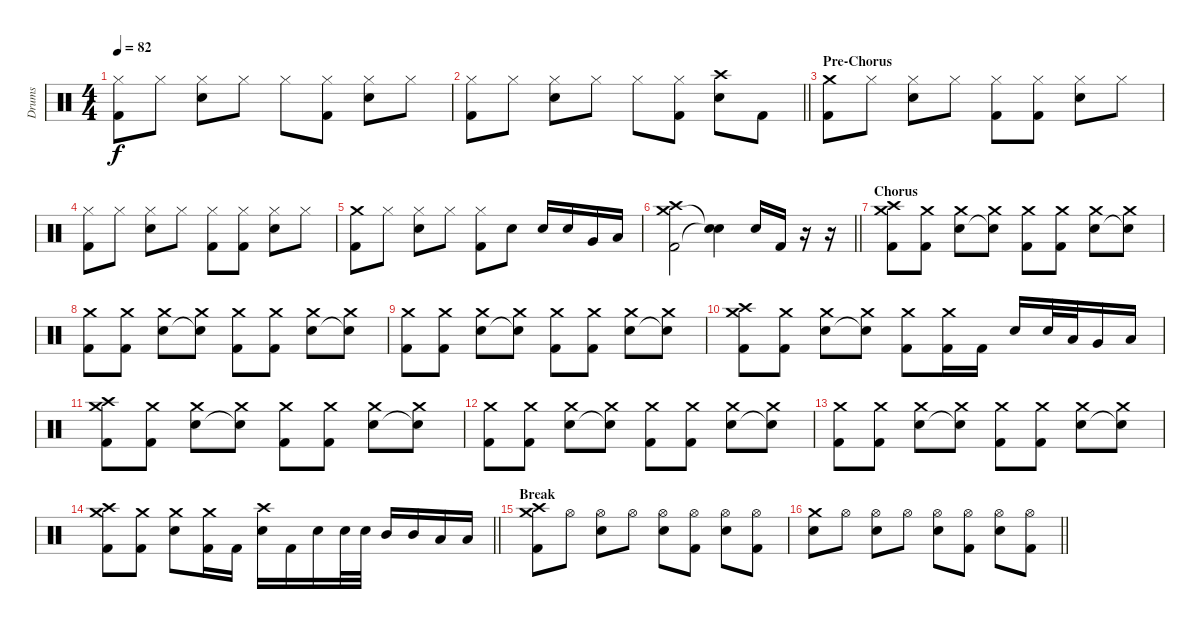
\track ("Drums" "Drums") {instrument percussion}
\staff {score}
\articulation defaults
\ts (4 4)
\tempo 82
\clef neutral
\ks c
("Kick (hit) 2" "Hi-Hat (closed)").8{dy f} "Hi-Hat (closed)".8 ("Electric Snare (hit)" "Hi-Hat (closed)").8 "Hi-Hat (closed)".8 "Hi-Hat (closed)".8 ("Kick (hit) 2" "Hi-Hat (closed)").8 ("Electric Snare (hit)" "Hi-Hat (closed)").8 "Hi-Hat (closed)".8 |
\barLineRight lightlight
("Kick (hit) 2" "Hi-Hat (closed)").8 "Hi-Hat (closed)".8 ("Electric Snare (hit)" "Hi-Hat (closed)").8 "Hi-Hat (closed)".8 "Hi-Hat (closed)".8 ("Kick (hit) 2" "Hi-Hat (closed)").8 ("Electric Snare (hit)" "Crash high (hit)").8 "Kick (hit) 2".8 |
\section ("" "Pre-Chorus")
("Kick (hit) 2" "Crash medium (hit)").8 "Hi-Hat (closed)".8 ("Electric Snare (hit)" "Hi-Hat (closed)").8 "Hi-Hat (closed)".8 ("Kick (hit) 2" "Hi-Hat (closed)").8 ("Kick (hit) 2" "Hi-Hat (closed)").8 ("Electric Snare (hit)" "Hi-Hat (closed)").8 "Hi-Hat (closed)".8 |
("Kick (hit) 2" "Hi-Hat (closed)").8 "Hi-Hat (closed)".8 ("Electric Snare (hit)" "Hi-Hat (closed)").8 "Hi-Hat (closed)".8 ("Kick (hit) 2" "Hi-Hat (closed)").8 ("Kick (hit) 2" "Hi-Hat (closed)").8 ("Electric Snare (hit)" "Hi-Hat (closed)").8 "Hi-Hat (closed)".8 |
("Kick (hit) 2" "Crash medium (hit)").8 "Hi-Hat (closed)".8 ("Electric Snare (hit)" "Hi-Hat (closed)").8 "Hi-Hat (closed)".8 ("Kick (hit) 2" "Hi-Hat (closed)").8 "Electric Snare (hit)".8 "Electric Snare (hit)".16 "Electric Snare (hit)".16 "Very Low Tom (hit)".16 "Low Floor Tom (hit)".16 |
\barLineRight lightlight
("Kick (hit) 2" "Crash medium (hit)" "Crash high (hit)").2 ("Snare (hit)"{t} "Snare (hit)"{t}).4 "Electric Snare (hit)".16 "Kick (hit) 2".16 r.16 r.16 |
\section ("" "Chorus")
("Kick (hit) 2" "Crash medium (hit)" "Crash high (hit)").8 ("Kick (hit) 2" "Crash medium (hit)").8 ("Electric Snare (hit)" "Crash medium (hit)").8 ("Snare (hit)"{t} "Crash medium (hit)").8 ("Kick (hit) 2" "Crash medium (hit)").8 ("Kick (hit) 2" "Crash medium (hit)").8 ("Electric Snare (hit)" "Crash medium (hit)").8 ("Snare (hit)"{t} "Crash medium (hit)").8 |
("Kick (hit) 2" "Crash medium (hit)").8 ("Kick (hit) 2" "Crash medium (hit)").8 ("Electric Snare (hit)" "Crash medium (hit)").8 ("Snare (hit)"{t} "Crash medium (hit)").8 ("Kick (hit) 2" "Crash medium (hit)").8 ("Kick (hit) 2" "Crash medium (hit)").8 ("Electric Snare (hit)" "Crash medium (hit)").8 ("Snare (hit)"{t} "Crash medium (hit)").8 |
("Kick (hit) 2" "Crash medium (hit)").8 ("Kick (hit) 2" "Crash medium (hit)").8 ("Electric Snare (hit)" "Crash medium (hit)").8 ("Snare (hit)"{t} "Crash medium (hit)").8 ("Kick (hit) 2" "Crash medium (hit)").8 ("Kick (hit) 2" "Crash medium (hit)").8 ("Electric Snare (hit)" "Crash medium (hit)").8 ("Snare (hit)"{t} "Crash medium (hit)").8 |
("Kick (hit) 2" "Crash medium (hit)" "Crash high (hit)").8 ("Kick (hit) 2" "Crash medium (hit)").8 ("Electric Snare (hit)" "Crash medium (hit)").8 ("Snare (hit)"{t} "Crash medium (hit)").8 ("Kick (hit) 2" "Crash medium (hit)").8 ("Kick (hit) 2" "Crash medium (hit)").16 "Kick (hit) 2".16 "Electric Snare (hit)".16 "Electric Snare (hit)".32 "Low Tom (hit)".32 "Very Low Tom (hit)".16 "Low Floor Tom (hit)".16 |
("Kick (hit) 2" "Crash medium (hit)" "Crash high (hit)").8 ("Kick (hit) 2" "Crash medium (hit)").8 ("Electric Snare (hit)" "Crash medium (hit)").8 ("Snare (hit)"{t} "Crash medium (hit)").8 ("Kick (hit) 2" "Crash medium (hit)").8 ("Kick (hit) 2" "Crash medium (hit)").8 ("Electric Snare (hit)" "Crash medium (hit)").8 ("Snare (hit)"{t} "Crash medium (hit)").8 |
("Kick (hit) 2" "Crash medium (hit)").8 ("Kick (hit) 2" "Crash medium (hit)").8 ("Electric Snare (hit)" "Crash medium (hit)").8 ("Snare (hit)"{t} "Crash medium (hit)").8 ("Kick (hit) 2" "Crash medium (hit)").8 ("Kick (hit) 2" "Crash medium (hit)").8 ("Electric Snare (hit)" "Crash medium (hit)").8 ("Snare (hit)"{t} "Crash medium (hit)").8 |
("Kick (hit) 2" "Crash medium (hit)").8 ("Kick (hit) 2" "Crash medium (hit)").8 ("Electric Snare (hit)" "Crash medium (hit)").8 ("Snare (hit)"{t} "Crash medium (hit)").8 ("Kick (hit) 2" "Crash medium (hit)").8 ("Kick (hit) 2" "Crash medium (hit)").8 ("Electric Snare (hit)" "Crash medium (hit)").8 ("Snare (hit)"{t} "Crash medium (hit)").8 |
\barLineRight lightlight
("Kick (hit) 2" "Crash medium (hit)" "Crash high (hit)").8 ("Kick (hit) 2" "Crash medium (hit)").8 ("Electric Snare (hit)" "Crash medium (hit)").8 ("Kick (hit) 2" "Crash medium (hit)").16 "Kick (hit) 2".16 ("Electric Snare (hit)" "Crash high (hit)").16 "Kick (hit) 2".16 "Electric Snare (hit)".16 "Electric Snare (hit)".32 "Electric Snare (hit)".32 "Mid Tom (hit)".16 "Mid Tom (hit)".16 "Low Tom (hit)".16 "Low Tom (hit)".16 |
\section ("" "Break")
("Kick (hit) 2" "Crash medium (hit)" "Crash high (hit)").8 "Hi-Hat (open)".8 ("Electric Snare (hit)" "Hi-Hat (open)").8 "Hi-Hat (open)".8 ("Electric Snare (hit)" "Hi-Hat (open)").8 ("Kick (hit) 2" "Hi-Hat (open)").8 ("Electric Snare (hit)" "Hi-Hat (open)").8 ("Kick (hit) 2" "Hi-Hat (open)").8 |
\barLineRight lightlight
("Electric Snare (hit)" "Crash medium (hit)").8 "Hi-Hat (open)".8 ("Electric Snare (hit)" "Hi-Hat (open)").8 "Hi-Hat (open)".8 ("Electric Snare (hit)" "Hi-Hat (open)").8 ("Kick (hit) 2" "Hi-Hat (open)").8 ("Electric Snare (hit)" "Hi-Hat (open)").8 ("Kick (hit) 2" "Hi-Hat (open)").8
